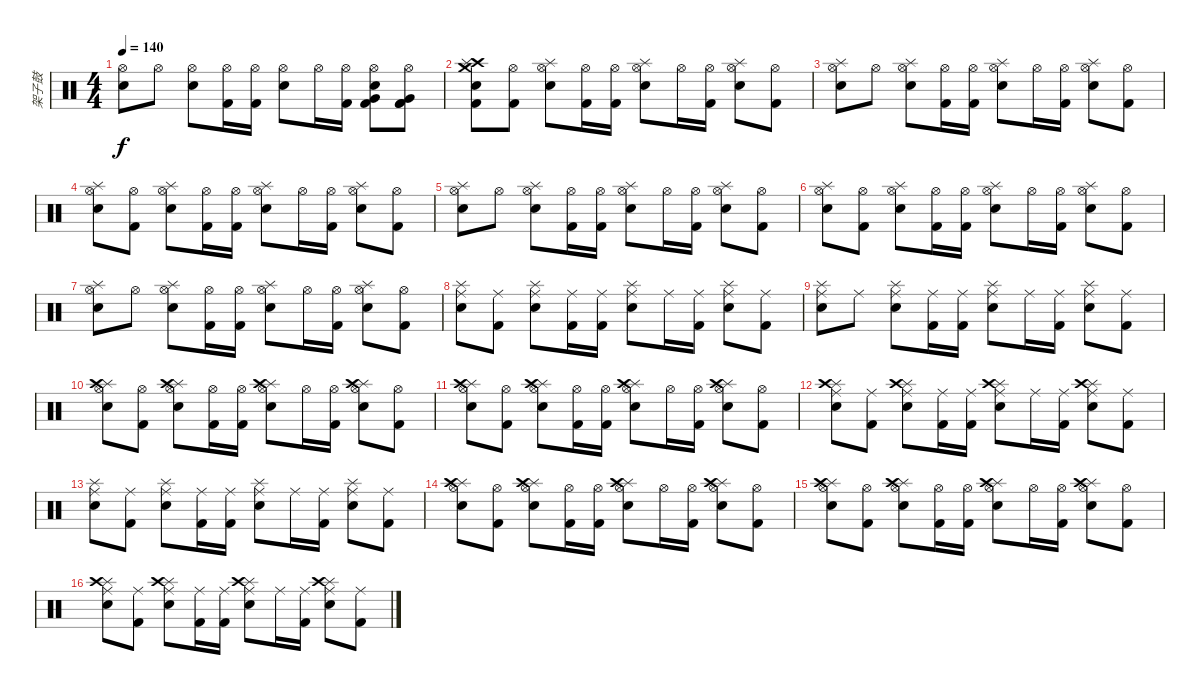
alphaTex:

\track ("架子鼓" "架子鼓") {instrument percussion}
\staff {score}
\articulation defaults
\ts (4 4)
\tempo 140
\clef neutral
\ks c
("Hi-Hat (open)" "Snare (hit) 2").8{dy f} "Hi-Hat (open)".8 ("Hi-Hat (open)" "Snare (hit) 2").8 ("Hi-Hat (open)" "Kick (hit) 2").16 ("Hi-Hat (open)" "Kick (hit) 2").16 ("Hi-Hat (open)" "Snare (hit) 2").8 "Hi-Hat (open)".16 ("Hi-Hat (open)" "Kick (hit) 2").16 ("Hi-Hat (open)" "Snare (hit) 2" "Very Low Tom (hit)" "Kick (hit) 2").8 ("Hi-Hat (open)" "Kick (hit) 2" "Very Low Tom (hit)" "Kick (hit) 2").8 |
("Crash high (hit)" "Splash (hit)" "Snare (hit) 2" "Crash medium (hit)" "Kick (hit) 2").8 ("Hi-Hat (open)" "Kick (hit) 2").8 ("Hi-Hat (open)" "Splash (hit)" "Snare (hit) 2").8 ("Hi-Hat (open)" "Kick (hit) 2").16 ("Hi-Hat (open)" "Kick (hit) 2").16 ("Hi-Hat (open)" "Splash (hit)" "Snare (hit) 2").8 "Hi-Hat (open)".16 ("Hi-Hat (open)" "Kick (hit) 2").16 ("Hi-Hat (open)" "Splash (hit)" "Snare (hit) 2").8 ("Hi-Hat (open)" "Kick (hit) 2").8 |
("Hi-Hat (open)" "Splash (hit)" "Snare (hit) 2").8 "Hi-Hat (open)".8 ("Hi-Hat (open)" "Splash (hit)" "Snare (hit) 2").8 ("Hi-Hat (open)" "Kick (hit) 2").16 ("Hi-Hat (open)" "Kick (hit) 2").16 ("Hi-Hat (open)" "Splash (hit)" "Snare (hit) 2").8 "Hi-Hat (open)".16 ("Hi-Hat (open)" "Kick (hit) 2").16 ("Hi-Hat (open)" "Splash (hit)" "Snare (hit) 2").8 ("Hi-Hat (open)" "Kick (hit) 2").8 |
("Hi-Hat (open)" "Splash (hit)" "Snare (hit) 2").8 ("Hi-Hat (open)" "Kick (hit) 2").8 ("Hi-Hat (open)" "Splash (hit)" "Snare (hit) 2").8 ("Hi-Hat (open)" "Kick (hit) 2").16 ("Hi-Hat (open)" "Kick (hit) 2").16 ("Hi-Hat (open)" "Splash (hit)" "Snare (hit) 2").8 "Hi-Hat (open)".16 ("Hi-Hat (open)" "Kick (hit) 2").16 ("Hi-Hat (open)" "Splash (hit)" "Snare (hit) 2").8 ("Hi-Hat (open)" "Kick (hit) 2").8 |
("Hi-Hat (open)" "Splash (hit)" "Snare (hit) 2").8 "Hi-Hat (open)".8 ("Hi-Hat (open)" "Splash (hit)" "Snare (hit) 2").8 ("Hi-Hat (open)" "Kick (hit) 2").16 ("Hi-Hat (open)" "Kick (hit) 2").16 ("Hi-Hat (open)" "Splash (hit)" "Snare (hit) 2").8 "Hi-Hat (open)".16 ("Hi-Hat (open)" "Kick (hit) 2").16 ("Hi-Hat (open)" "Splash (hit)" "Snare (hit) 2").8 ("Hi-Hat (open)" "Kick (hit) 2").8 |
("Hi-Hat (open)" "Splash (hit)" "Snare (hit) 2").8 ("Hi-Hat (open)" "Kick (hit) 2").8 ("Hi-Hat (open)" "Splash (hit)" "Snare (hit) 2").8 ("Hi-Hat (open)" "Kick (hit) 2").16 ("Hi-Hat (open)" "Kick (hit) 2").16 ("Hi-Hat (open)" "Splash (hit)" "Snare (hit) 2").8 "Hi-Hat (open)".16 ("Hi-Hat (open)" "Kick (hit) 2").16 ("Hi-Hat (open)" "Splash (hit)" "Snare (hit) 2").8 ("Hi-Hat (open)" "Kick (hit) 2").8 |
("Hi-Hat (open)" "Splash (hit)" "Snare (hit) 2").8 "Hi-Hat (open)".8 ("Hi-Hat (open)" "Splash (hit)" "Snare (hit) 2").8 ("Hi-Hat (open)" "Kick (hit) 2").16 ("Hi-Hat (open)" "Kick (hit) 2").16 ("Hi-Hat (open)" "Splash (hit)" "Snare (hit) 2").8 "Hi-Hat (open)".16 ("Hi-Hat (open)" "Kick (hit) 2").16 ("Hi-Hat (open)" "Splash (hit)" "Snare (hit) 2").8 ("Hi-Hat (open)" "Kick (hit) 2").8 |
("Ride (middle)" "Splash (hit)" "Snare (hit) 2").8 ("Ride (middle)" "Kick (hit) 2").8 ("Ride (middle)" "Splash (hit)" "Snare (hit) 2").8 ("Ride (middle)" "Kick (hit) 2").16 ("Ride (middle)" "Kick (hit) 2").16 ("Ride (middle)" "Splash (hit)" "Snare (hit) 2").8 "Ride (middle)".16 ("Ride (middle)" "Kick (hit) 2").16 ("Ride (middle)" "Splash (hit)" "Snare (hit) 2").8 ("Ride (middle)" "Kick (hit) 2").8 |
("Ride (middle)" "Splash (hit)" "Snare (hit) 2").8 "Ride (middle)".8 ("Ride (middle)" "Splash (hit)" "Snare (hit) 2").8 ("Ride (middle)" "Kick (hit) 2").16 ("Ride (middle)" "Kick (hit) 2").16 ("Ride (middle)" "Splash (hit)" "Snare (hit) 2").8 "Ride (middle)".16 ("Ride (middle)" "Kick (hit) 2").16 ("Ride (middle)" "Splash (hit)" "Snare (hit) 2").8 ("Ride (middle)" "Kick (hit) 2").8 |
("Hi-Hat (open)" "Splash (hit)" "Snare (hit) 2" "Crash high (hit)").8 ("Hi-Hat (open)" "Kick (hit) 2").8 ("Hi-Hat (open)" "Splash (hit)" "Snare (hit) 2" "Crash high (hit)").8 ("Hi-Hat (open)" "Kick (hit) 2").16 ("Hi-Hat (open)" "Kick (hit) 2").16 ("Hi-Hat (open)" "Splash (hit)" "Snare (hit) 2" "Crash high (hit)").8 "Hi-Hat (open)".16 ("Hi-Hat (open)" "Kick (hit) 2").16 ("Hi-Hat (open)" "Splash (hit)" "Snare (hit) 2" "Crash high (hit)").8 ("Hi-Hat (open)" "Kick (hit) 2").8 |
("Hi-Hat (open)" "Splash (hit)" "Snare (hit) 2" "Crash high (hit)").8 ("Hi-Hat (open)" "Kick (hit) 2").8 ("Hi-Hat (open)" "Splash (hit)" "Snare (hit) 2" "Crash high (hit)").8 ("Hi-Hat (open)" "Kick (hit) 2").16 ("Hi-Hat (open)" "Kick (hit) 2").16 ("Hi-Hat (open)" "Splash (hit)" "Snare (hit) 2" "Crash high (hit)").8 "Hi-Hat (open)".16 ("Hi-Hat (open)" "Kick (hit) 2").16 ("Hi-Hat (open)" "Splash (hit)" "Snare (hit) 2" "Crash high (hit)").8 ("Hi-Hat (open)" "Kick (hit) 2").8 |
("Ride (middle)" "Splash (hit)" "Snare (hit) 2" "Crash high (hit)").8 ("Ride (middle)" "Kick (hit) 2").8 ("Ride (middle)" "Splash (hit)" "Snare (hit) 2" "Crash high (hit)").8 ("Ride (middle)" "Kick (hit) 2").16 ("Ride (middle)" "Kick (hit) 2").16 ("Ride (middle)" "Splash (hit)" "Snare (hit) 2" "Crash high (hit)").8 "Ride (middle)".16 ("Ride (middle)" "Kick (hit) 2").16 ("Ride (middle)" "Splash (hit)" "Snare (hit) 2" "Crash high (hit)").8 ("Ride (middle)" "Kick (hit) 2").8 |
("Ride (middle)" "Splash (hit)" "Snare (hit) 2").8 ("Ride (middle)" "Kick (hit) 2").8 ("Ride (middle)" "Splash (hit)" "Snare (hit) 2").8 ("Ride (middle)" "Kick (hit) 2").16 ("Ride (middle)" "Kick (hit) 2").16 ("Ride (middle)" "Splash (hit)" "Snare (hit) 2").8 "Ride (middle)".16 ("Ride (middle)" "Kick (hit) 2").16 ("Ride (middle)" "Splash (hit)" "Snare (hit) 2").8 ("Ride (middle)" "Kick (hit) 2").8 |
("Hi-Hat (open)" "Splash (hit)" "Snare (hit) 2" "Crash high (hit)").8 ("Hi-Hat (open)" "Kick (hit) 2").8 ("Hi-Hat (open)" "Splash (hit)" "Snare (hit) 2" "Crash high (hit)").8 ("Hi-Hat (open)" "Kick (hit) 2").16 ("Hi-Hat (open)" "Kick (hit) 2").16 ("Hi-Hat (open)" "Splash (hit)" "Snare (hit) 2" "Crash high (hit)").8 "Hi-Hat (open)".16 ("Hi-Hat (open)" "Kick (hit) 2").16 ("Hi-Hat (open)" "Splash (hit)" "Snare (hit) 2" "Crash high (hit)").8 ("Hi-Hat (open)" "Kick (hit) 2").8 |
("Hi-Hat (open)" "Splash (hit)" "Snare (hit) 2" "Crash high (hit)").8 ("Hi-Hat (open)" "Kick (hit) 2").8 ("Hi-Hat (open)" "Splash (hit)" "Snare (hit) 2" "Crash high (hit)").8 ("Hi-Hat (open)" "Kick (hit) 2").16 ("Hi-Hat (open)" "Kick (hit) 2").16 ("Hi-Hat (open)" "Splash (hit)" "Snare (hit) 2" "Crash high (hit)").8 "Hi-Hat (open)".16 ("Hi-Hat (open)" "Kick (hit) 2").16 ("Hi-Hat (open)" "Splash (hit)" "Snare (hit) 2" "Crash high (hit)").8 ("Hi-Hat (open)" "Kick (hit) 2").8 |
("Ride (middle)" "Splash (hit)" "Snare (hit) 2" "Crash high (hit)").8 ("Ride (middle)" "Kick (hit) 2").8 ("Ride (middle)" "Splash (hit)" "Snare (hit) 2" "Crash high (hit)").8 ("Ride (middle)" "Kick (hit) 2").16 ("Ride (middle)" "Kick (hit) 2").16 ("Ride (middle)" "Splash (hit)" "Snare (hit) 2" "Crash high (hit)").8 "Ride (middle)".16 ("Ride (middle)" "Kick (hit) 2").16 ("Ride (middle)" "Splash (hit)" "Snare (hit) 2" "Crash high (hit)").8 ("Ride (middle)" "Kick (hit) 2").8
